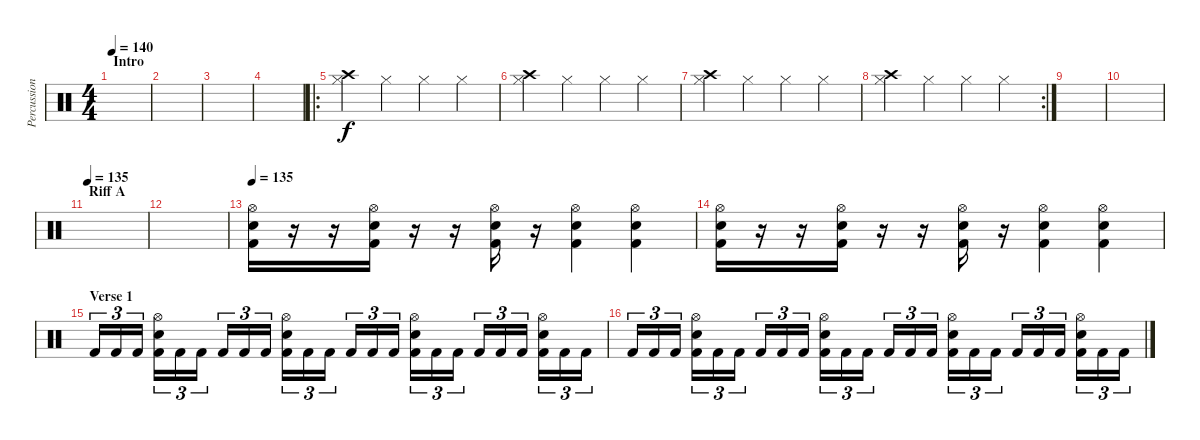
\track ("Percussion" "Percussion") {instrument percussion}
\staff {score}
\articulation defaults
\ts (4 4)
\section ("" "Intro")
\tempo 140
\clef neutral
\ks c
|
|
|
|
\ro
("Crash high (hit)" "Hi-Hat (closed)").4 "Hi-Hat (closed)".4 "Hi-Hat (closed)".4 "Hi-Hat (closed)".4 |
("Crash high (hit)" "Hi-Hat (closed)").4 "Hi-Hat (closed)".4 "Hi-Hat (closed)".4 "Hi-Hat (closed)".4 |
("Crash high (hit)" "Hi-Hat (closed)").4 "Hi-Hat (closed)".4 "Hi-Hat (closed)".4 "Hi-Hat (closed)".4 |
\rc 2
("Crash high (hit)" "Hi-Hat (closed)").4 "Hi-Hat (closed)".4 "Hi-Hat (closed)".4 "Hi-Hat (closed)".4 |
|
|
\section ("" "Riff A")
\tempo 135
|
|
\tempo 135
("Hi-Hat (open)" "Snare (hit) 2" "Kick (hit) 2").16 r.16 r.16 ("Hi-Hat (open)" "Snare (hit) 2" "Kick (hit) 2").16 r.16 r.16 ("Hi-Hat (open)" "Snare (hit) 2" "Kick (hit) 2").16 r.16 ("Hi-Hat (open)" "Snare (hit) 2" "Kick (hit) 2").4 ("Hi-Hat (open)" "Snare (hit) 2" "Kick (hit) 2").4 |
("Hi-Hat (open)" "Snare (hit) 2" "Kick (hit) 2").16 r.16 r.16 ("Hi-Hat (open)" "Snare (hit) 2" "Kick (hit) 2").16 r.16 r.16 ("Hi-Hat (open)" "Snare (hit) 2" "Kick (hit) 2").16 r.16 ("Hi-Hat (open)" "Snare (hit) 2" "Kick (hit) 2").4 ("Hi-Hat (open)" "Snare (hit) 2" "Kick (hit) 2").4 |
\section ("" "Verse 1")
"Kick (hit) 2".16{tu (3 2)} "Kick (hit) 2".16{tu (3 2)} "Kick (hit) 2".16{tu (3 2)} ("Hi-Hat (open)" "Snare (hit) 2" "Kick (hit) 2").16{tu (3 2)} "Kick (hit) 2".16{tu (3 2)} "Kick (hit) 2".16{tu (3 2)} "Kick (hit) 2".16{tu (3 2)} "Kick (hit) 2".16{tu (3 2)} "Kick (hit) 2".16{tu (3 2)} ("Hi-Hat (open)" "Snare (hit) 2" "Kick (hit) 2").16{tu (3 2)} "Kick (hit) 2".16{tu (3 2)} "Kick (hit) 2".16{tu (3 2)} "Kick (hit) 2".16{tu (3 2)} "Kick (hit) 2".16{tu (3 2)} "Kick (hit) 2".16{tu (3 2)} ("Hi-Hat (open)" "Snare (hit) 2" "Kick (hit) 2").16{tu (3 2)} "Kick (hit) 2".16{tu (3 2)} "Kick (hit) 2".16{tu (3 2)} "Kick (hit) 2".16{tu (3 2)} "Kick (hit) 2".16{tu (3 2)} "Kick (hit) 2".16{tu (3 2)} ("Hi-Hat (open)" "Snare (hit) 2" "Kick (hit) 2").16{tu (3 2)} "Kick (hit) 2".16{tu (3 2)} "Kick (hit) 2".16{tu (3 2)} |
"Kick (hit) 2".16{tu (3 2)} "Kick (hit) 2".16{tu (3 2)} "Kick (hit) 2".16{tu (3 2)} ("Hi-Hat (open)" "Snare (hit) 2" "Kick (hit) 2").16{tu (3 2)} "Kick (hit) 2".16{tu (3 2)} "Kick (hit) 2".16{tu (3 2)} "Kick (hit) 2".16{tu (3 2)} "Kick (hit) 2".16{tu (3 2)} "Kick (hit) 2".16{tu (3 2)} ("Hi-Hat (open)" "Snare (hit) 2" "Kick (hit) 2").16{tu (3 2)} "Kick (hit) 2".16{tu (3 2)} "Kick (hit) 2".16{tu (3 2)} "Kick (hit) 2".16{tu (3 2)} "Kick (hit) 2".16{tu (3 2)} "Kick (hit) 2".16{tu (3 2)} ("Hi-Hat (open)" "Snare (hit) 2" "Kick (hit) 2").16{tu (3 2)} "Kick (hit) 2".16{tu (3 2)} "Kick (hit) 2".16{tu (3 2)} "Kick (hit) 2".16{tu (3 2)} "Kick (hit) 2".16{tu (3 2)} "Kick (hit) 2".16{tu (3 2)} ("Hi-Hat (open)" "Snare (hit) 2" "Kick (hit) 2").16{tu (3 2)} "Kick (hit) 2".16{tu (3 2)} "Kick (hit) 2".16{tu (3 2)}
